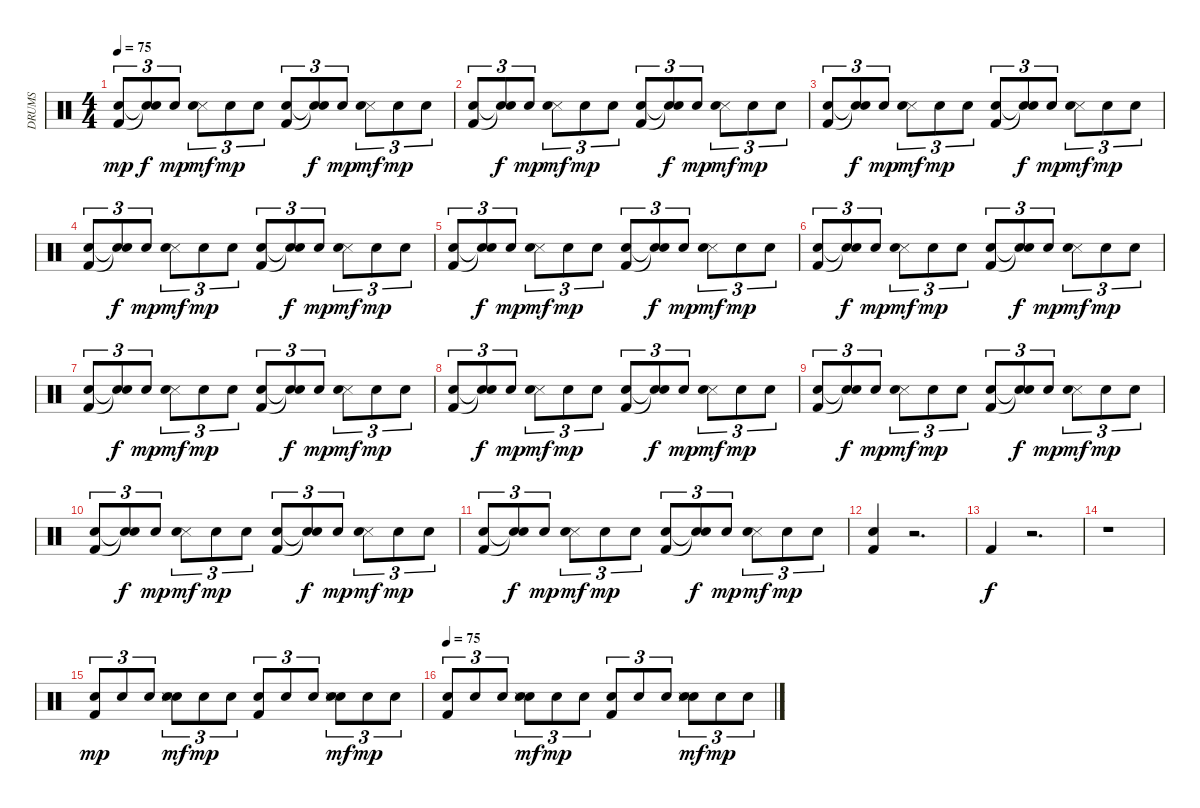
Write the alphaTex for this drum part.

\track ("DRUMS" "DRUMS") {instrument percussion}
\staff {score}
\articulation defaults
\ts (4 4)
\tempo 75
\clef neutral
\ks c
("Snare (hit) 2" "Kick (hit) 2").8{tu (3 2) dy mp} ("Snare (hit)"{t} "Snare (hit)"{t}).8{tu (3 2) dy f} "Snare (hit) 2".8{tu (3 2) dy mp} ("Snare (side stick) 3" "Hand Clap (hit)").8{tu (3 2) dy mf} "Snare (hit) 2".8{tu (3 2) dy mp} "Snare (hit) 2".8{tu (3 2)} ("Snare (hit) 2" "Kick (hit) 2").8{tu (3 2)} ("Snare (hit)"{t} "Snare (hit)"{t}).8{tu (3 2) dy f} "Snare (hit) 2".8{tu (3 2) dy mp} ("Snare (side stick) 3" "Hand Clap (hit)").8{tu (3 2) dy mf} "Snare (hit) 2".8{tu (3 2) dy mp} "Snare (hit) 2".8{tu (3 2)} |
("Snare (hit) 2" "Kick (hit) 2").8{tu (3 2)} ("Snare (hit)"{t} "Snare (hit)"{t}).8{tu (3 2) dy f} "Snare (hit) 2".8{tu (3 2) dy mp} ("Snare (side stick) 3" "Hand Clap (hit)").8{tu (3 2) dy mf} "Snare (hit) 2".8{tu (3 2) dy mp} "Snare (hit) 2".8{tu (3 2)} ("Snare (hit) 2" "Kick (hit) 2").8{tu (3 2)} ("Snare (hit)"{t} "Snare (hit)"{t}).8{tu (3 2) dy f} "Snare (hit) 2".8{tu (3 2) dy mp} ("Snare (side stick) 3" "Hand Clap (hit)").8{tu (3 2) dy mf} "Snare (hit) 2".8{tu (3 2) dy mp} "Snare (hit) 2".8{tu (3 2)} |
("Snare (hit) 2" "Kick (hit) 2").8{tu (3 2)} ("Snare (hit)"{t} "Snare (hit)"{t}).8{tu (3 2) dy f} "Snare (hit) 2".8{tu (3 2) dy mp} ("Snare (side stick) 3" "Hand Clap (hit)").8{tu (3 2) dy mf} "Snare (hit) 2".8{tu (3 2) dy mp} "Snare (hit) 2".8{tu (3 2)} ("Snare (hit) 2" "Kick (hit) 2").8{tu (3 2)} ("Snare (hit)"{t} "Snare (hit)"{t}).8{tu (3 2) dy f} "Snare (hit) 2".8{tu (3 2) dy mp} ("Snare (side stick) 3" "Hand Clap (hit)").8{tu (3 2) dy mf} "Snare (hit) 2".8{tu (3 2) dy mp} "Snare (hit) 2".8{tu (3 2)} |
("Snare (hit) 2" "Kick (hit) 2").8{tu (3 2)} ("Snare (hit)"{t} "Snare (hit)"{t}).8{tu (3 2) dy f} "Snare (hit) 2".8{tu (3 2) dy mp} ("Snare (side stick) 3" "Hand Clap (hit)").8{tu (3 2) dy mf} "Snare (hit) 2".8{tu (3 2) dy mp} "Snare (hit) 2".8{tu (3 2)} ("Snare (hit) 2" "Kick (hit) 2").8{tu (3 2)} ("Snare (hit)"{t} "Snare (hit)"{t}).8{tu (3 2) dy f} "Snare (hit) 2".8{tu (3 2) dy mp} ("Snare (side stick) 3" "Hand Clap (hit)").8{tu (3 2) dy mf} "Snare (hit) 2".8{tu (3 2) dy mp} "Snare (hit) 2".8{tu (3 2)} |
("Snare (hit) 2" "Kick (hit) 2").8{tu (3 2)} ("Snare (hit)"{t} "Snare (hit)"{t}).8{tu (3 2) dy f} "Snare (hit) 2".8{tu (3 2) dy mp} ("Snare (side stick) 3" "Hand Clap (hit)").8{tu (3 2) dy mf} "Snare (hit) 2".8{tu (3 2) dy mp} "Snare (hit) 2".8{tu (3 2)} ("Snare (hit) 2" "Kick (hit) 2").8{tu (3 2)} ("Snare (hit)"{t} "Snare (hit)"{t}).8{tu (3 2) dy f} "Snare (hit) 2".8{tu (3 2) dy mp} ("Snare (side stick) 3" "Hand Clap (hit)").8{tu (3 2) dy mf} "Snare (hit) 2".8{tu (3 2) dy mp} "Snare (hit) 2".8{tu (3 2)} |
("Snare (hit) 2" "Kick (hit) 2").8{tu (3 2)} ("Snare (hit)"{t} "Snare (hit)"{t}).8{tu (3 2) dy f} "Snare (hit) 2".8{tu (3 2) dy mp} ("Snare (side stick) 3" "Hand Clap (hit)").8{tu (3 2) dy mf} "Snare (hit) 2".8{tu (3 2) dy mp} "Snare (hit) 2".8{tu (3 2)} ("Snare (hit) 2" "Kick (hit) 2").8{tu (3 2)} ("Snare (hit)"{t} "Snare (hit)"{t}).8{tu (3 2) dy f} "Snare (hit) 2".8{tu (3 2) dy mp} ("Snare (side stick) 3" "Hand Clap (hit)").8{tu (3 2) dy mf} "Snare (hit) 2".8{tu (3 2) dy mp} "Snare (hit) 2".8{tu (3 2)} |
("Snare (hit) 2" "Kick (hit) 2").8{tu (3 2)} ("Snare (hit)"{t} "Snare (hit)"{t}).8{tu (3 2) dy f} "Snare (hit) 2".8{tu (3 2) dy mp} ("Snare (side stick) 3" "Hand Clap (hit)").8{tu (3 2) dy mf} "Snare (hit) 2".8{tu (3 2) dy mp} "Snare (hit) 2".8{tu (3 2)} ("Snare (hit) 2" "Kick (hit) 2").8{tu (3 2)} ("Snare (hit)"{t} "Snare (hit)"{t}).8{tu (3 2) dy f} "Snare (hit) 2".8{tu (3 2) dy mp} ("Snare (side stick) 3" "Hand Clap (hit)").8{tu (3 2) dy mf} "Snare (hit) 2".8{tu (3 2) dy mp} "Snare (hit) 2".8{tu (3 2)} |
("Snare (hit) 2" "Kick (hit) 2").8{tu (3 2)} ("Snare (hit)"{t} "Snare (hit)"{t}).8{tu (3 2) dy f} "Snare (hit) 2".8{tu (3 2) dy mp} ("Snare (side stick) 3" "Hand Clap (hit)").8{tu (3 2) dy mf} "Snare (hit) 2".8{tu (3 2) dy mp} "Snare (hit) 2".8{tu (3 2)} ("Snare (hit) 2" "Kick (hit) 2").8{tu (3 2)} ("Snare (hit)"{t} "Snare (hit)"{t}).8{tu (3 2) dy f} "Snare (hit) 2".8{tu (3 2) dy mp} ("Snare (side stick) 3" "Hand Clap (hit)").8{tu (3 2) dy mf} "Snare (hit) 2".8{tu (3 2) dy mp} "Snare (hit) 2".8{tu (3 2)} |
("Snare (hit) 2" "Kick (hit) 2").8{tu (3 2)} ("Snare (hit)"{t} "Snare (hit)"{t}).8{tu (3 2) dy f} "Snare (hit) 2".8{tu (3 2) dy mp} ("Snare (side stick) 3" "Hand Clap (hit)").8{tu (3 2) dy mf} "Snare (hit) 2".8{tu (3 2) dy mp} "Snare (hit) 2".8{tu (3 2)} ("Snare (hit) 2" "Kick (hit) 2").8{tu (3 2)} ("Snare (hit)"{t} "Snare (hit)"{t}).8{tu (3 2) dy f} "Snare (hit) 2".8{tu (3 2) dy mp} ("Snare (side stick) 3" "Hand Clap (hit)").8{tu (3 2) dy mf} "Snare (hit) 2".8{tu (3 2) dy mp} "Snare (hit) 2".8{tu (3 2)} |
("Snare (hit) 2" "Kick (hit) 2").8{tu (3 2)} ("Snare (hit)"{t} "Snare (hit)"{t}).8{tu (3 2) dy f} "Snare (hit) 2".8{tu (3 2) dy mp} ("Snare (side stick) 3" "Hand Clap (hit)").8{tu (3 2) dy mf} "Snare (hit) 2".8{tu (3 2) dy mp} "Snare (hit) 2".8{tu (3 2)} ("Snare (hit) 2" "Kick (hit) 2").8{tu (3 2)} ("Snare (hit)"{t} "Snare (hit)"{t}).8{tu (3 2) dy f} "Snare (hit) 2".8{tu (3 2) dy mp} ("Snare (side stick) 3" "Hand Clap (hit)").8{tu (3 2) dy mf} "Snare (hit) 2".8{tu (3 2) dy mp} "Snare (hit) 2".8{tu (3 2)} |
("Snare (hit) 2" "Kick (hit) 2").8{tu (3 2)} ("Snare (hit)"{t} "Snare (hit)"{t}).8{tu (3 2) dy f} "Snare (hit) 2".8{tu (3 2) dy mp} ("Snare (side stick) 3" "Hand Clap (hit)").8{tu (3 2) dy mf} "Snare (hit) 2".8{tu (3 2) dy mp} "Snare (hit) 2".8{tu (3 2)} ("Snare (hit) 2" "Kick (hit) 2").8{tu (3 2)} ("Snare (hit)"{t} "Snare (hit)"{t}).8{tu (3 2) dy f} "Snare (hit) 2".8{tu (3 2) dy mp} ("Snare (side stick) 3" "Hand Clap (hit)").8{tu (3 2) dy mf} "Snare (hit) 2".8{tu (3 2) dy mp} "Snare (hit) 2".8{tu (3 2)} |
("Snare (hit) 2" "Kick (hit) 2").4 r.2{d} |
"Kick (hit) 2".4{dy f} r.2{d} |
r.1 |
("Snare (hit) 2" "Kick (hit) 2").8{tu (3 2) dy mp} "Snare (hit) 2".8{tu (3 2)} "Snare (hit) 2".8{tu (3 2)} ("Snare (hit) 2" "Snare (side stick) 3" "Hand Clap (hit)").8{tu (3 2) dy mf} "Snare (hit) 2".8{tu (3 2) dy mp} "Snare (hit) 2".8{tu (3 2)} ("Snare (hit) 2" "Kick (hit) 2").8{tu (3 2)} "Snare (hit) 2".8{tu (3 2)} "Snare (hit) 2".8{tu (3 2)} ("Snare (hit) 2" "Snare (side stick) 3" "Hand Clap (hit)").8{tu (3 2) dy mf} "Snare (hit) 2".8{tu (3 2) dy mp} "Snare (hit) 2".8{tu (3 2)} |
\tempo 75
("Snare (hit) 2" "Kick (hit) 2").8{tu (3 2)} "Snare (hit) 2".8{tu (3 2)} "Snare (hit) 2".8{tu (3 2)} ("Snare (hit) 2" "Snare (side stick) 3" "Hand Clap (hit)").8{tu (3 2) dy mf} "Snare (hit) 2".8{tu (3 2) dy mp} "Snare (hit) 2".8{tu (3 2)} ("Snare (hit) 2" "Kick (hit) 2").8{tu (3 2)} "Snare (hit) 2".8{tu (3 2)} "Snare (hit) 2".8{tu (3 2)} ("Snare (hit) 2" "Snare (side stick) 3" "Hand Clap (hit)").8{tu (3 2) dy mf} "Snare (hit) 2".8{tu (3 2) dy mp} "Snare (hit) 2".8{tu (3 2)}
